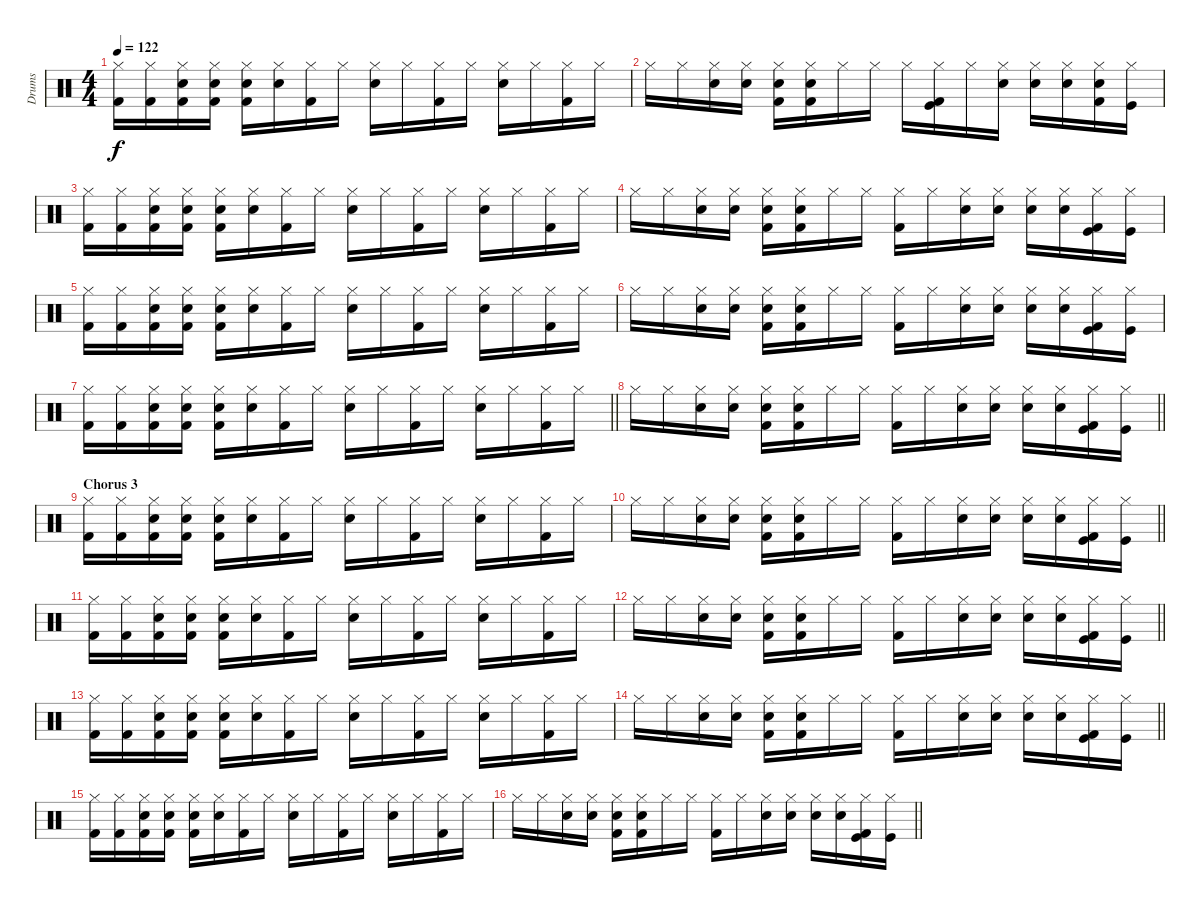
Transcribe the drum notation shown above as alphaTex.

\track ("Drums" "Drums") {instrument percussion}
\staff {score}
\articulation defaults
\ts (4 4)
\tempo 122
\clef neutral
\ks c
("Hi-Hat (closed)" "Kick (hit) 2").16{dy f} ("Hi-Hat (closed)" "Kick (hit) 2").16 ("Hi-Hat (closed)" "Hand Clap (hit)" "Kick (hit) 2").16 ("Hi-Hat (closed)" "Hand Clap (hit)" "Kick (hit) 2").16 ("Hi-Hat (closed)" "Hand Clap (hit)" "Kick (hit) 2").16 ("Hi-Hat (closed)" "Hand Clap (hit)").16 ("Hi-Hat (closed)" "Kick (hit) 2").16 "Hi-Hat (closed)".16 ("Hi-Hat (closed)" "Electric Snare (hit)").16 "Hi-Hat (closed)".16 ("Hi-Hat (closed)" "Kick (hit) 2").16 "Hi-Hat (closed)".16 ("Hi-Hat (closed)" "Electric Snare (hit)").16 "Hi-Hat (closed)".16 ("Hi-Hat (closed)" "Kick (hit) 2").16 "Hi-Hat (closed)".16 |
"Hi-Hat (closed)".16 "Hi-Hat (closed)".16 ("Hi-Hat (closed)" "Hand Clap (hit)").16 ("Hi-Hat (closed)" "Hand Clap (hit)").16 ("Hi-Hat (closed)" "Hand Clap (hit)" "Kick (hit) 2").16 ("Hi-Hat (closed)" "Hand Clap (hit)" "Kick (hit) 2").16 "Hi-Hat (closed)".16 "Hi-Hat (closed)".16 "Hi-Hat (closed)".16 ("Hi-Hat (closed)" "Kick (hit)" "Kick (hit) 2").16 "Hi-Hat (closed)".16 ("Hi-Hat (closed)" "Hand Clap (hit)").16 ("Hi-Hat (closed)" "Hand Clap (hit)").16 ("Hi-Hat (closed)" "Hand Clap (hit)").16 ("Hi-Hat (closed)" "Hand Clap (hit)" "Kick (hit) 2").16 ("Hi-Hat (closed)" "Kick (hit)").16 |
("Hi-Hat (closed)" "Kick (hit) 2").16 ("Hi-Hat (closed)" "Kick (hit) 2").16 ("Hi-Hat (closed)" "Hand Clap (hit)" "Kick (hit) 2").16 ("Hi-Hat (closed)" "Hand Clap (hit)" "Kick (hit) 2").16 ("Hi-Hat (closed)" "Hand Clap (hit)" "Kick (hit) 2").16 ("Hi-Hat (closed)" "Hand Clap (hit)").16 ("Hi-Hat (closed)" "Kick (hit) 2").16 "Hi-Hat (closed)".16 ("Hi-Hat (closed)" "Electric Snare (hit)").16 "Hi-Hat (closed)".16 ("Hi-Hat (closed)" "Kick (hit) 2").16 "Hi-Hat (closed)".16 ("Hi-Hat (closed)" "Electric Snare (hit)").16 "Hi-Hat (closed)".16 ("Hi-Hat (closed)" "Kick (hit) 2").16 "Hi-Hat (closed)".16 |
"Hi-Hat (closed)".16 "Hi-Hat (closed)".16 ("Hi-Hat (closed)" "Hand Clap (hit)").16 ("Hi-Hat (closed)" "Hand Clap (hit)").16 ("Hi-Hat (closed)" "Hand Clap (hit)" "Kick (hit) 2").16 ("Hi-Hat (closed)" "Hand Clap (hit)" "Kick (hit) 2").16 "Hi-Hat (closed)".16 "Hi-Hat (closed)".16 ("Hi-Hat (closed)" "Kick (hit) 2").16 "Hi-Hat (closed)".16 ("Hi-Hat (closed)" "Hand Clap (hit)").16 ("Hi-Hat (closed)" "Hand Clap (hit)").16 ("Hi-Hat (closed)" "Hand Clap (hit)").16 ("Hi-Hat (closed)" "Hand Clap (hit)").16 ("Hi-Hat (closed)" "Kick (hit)" "Kick (hit) 2").16 ("Hi-Hat (closed)" "Kick (hit)").16 |
("Hi-Hat (closed)" "Kick (hit) 2").16 ("Hi-Hat (closed)" "Kick (hit) 2").16 ("Hi-Hat (closed)" "Hand Clap (hit)" "Kick (hit) 2").16 ("Hi-Hat (closed)" "Hand Clap (hit)" "Kick (hit) 2").16 ("Hi-Hat (closed)" "Hand Clap (hit)" "Kick (hit) 2").16 ("Hi-Hat (closed)" "Hand Clap (hit)").16 ("Hi-Hat (closed)" "Kick (hit) 2").16 "Hi-Hat (closed)".16 ("Hi-Hat (closed)" "Electric Snare (hit)").16 "Hi-Hat (closed)".16 ("Hi-Hat (closed)" "Kick (hit) 2").16 "Hi-Hat (closed)".16 ("Hi-Hat (closed)" "Electric Snare (hit)").16 "Hi-Hat (closed)".16 ("Hi-Hat (closed)" "Kick (hit) 2").16 "Hi-Hat (closed)".16 |
"Hi-Hat (closed)".16 "Hi-Hat (closed)".16 ("Hi-Hat (closed)" "Hand Clap (hit)").16 ("Hi-Hat (closed)" "Hand Clap (hit)").16 ("Hi-Hat (closed)" "Hand Clap (hit)" "Kick (hit) 2").16 ("Hi-Hat (closed)" "Hand Clap (hit)" "Kick (hit) 2").16 "Hi-Hat (closed)".16 "Hi-Hat (closed)".16 ("Hi-Hat (closed)" "Kick (hit) 2").16 "Hi-Hat (closed)".16 ("Hi-Hat (closed)" "Hand Clap (hit)").16 ("Hi-Hat (closed)" "Hand Clap (hit)").16 ("Hi-Hat (closed)" "Hand Clap (hit)").16 ("Hi-Hat (closed)" "Hand Clap (hit)").16 ("Hi-Hat (closed)" "Kick (hit)" "Kick (hit) 2").16 ("Hi-Hat (closed)" "Kick (hit)").16 |
\barLineRight lightlight
("Hi-Hat (closed)" "Kick (hit) 2").16 ("Hi-Hat (closed)" "Kick (hit) 2").16 ("Hi-Hat (closed)" "Hand Clap (hit)" "Kick (hit) 2").16 ("Hi-Hat (closed)" "Hand Clap (hit)" "Kick (hit) 2").16 ("Hi-Hat (closed)" "Hand Clap (hit)" "Kick (hit) 2").16 ("Hi-Hat (closed)" "Hand Clap (hit)").16 ("Hi-Hat (closed)" "Kick (hit) 2").16 "Hi-Hat (closed)".16 ("Hi-Hat (closed)" "Electric Snare (hit)").16 "Hi-Hat (closed)".16 ("Hi-Hat (closed)" "Kick (hit) 2").16 "Hi-Hat (closed)".16 ("Hi-Hat (closed)" "Electric Snare (hit)").16 "Hi-Hat (closed)".16 ("Hi-Hat (closed)" "Kick (hit) 2").16 "Hi-Hat (closed)".16 |
\barLineRight lightlight "Hi-Hat (closed)".16 "Hi-Hat (closed)".16
("Hi-Hat (closed)" "Hand Clap (hit)").16 ("Hi-Hat (closed)" "Hand Clap (hit)").16 ("Hi-Hat (closed)" "Hand Clap (hit)" "Kick (hit) 2").16 ("Hi-Hat (closed)" "Hand Clap (hit)" "Kick (hit) 2").16 "Hi-Hat (closed)".16 "Hi-Hat (closed)".16 ("Hi-Hat (closed)" "Kick (hit) 2").16 "Hi-Hat (closed)".16 ("Hi-Hat (closed)" "Hand Clap (hit)").16 ("Hi-Hat (closed)" "Hand Clap (hit)").16 ("Hi-Hat (closed)" "Hand Clap (hit)").16 ("Hi-Hat (closed)" "Hand Clap (hit)").16 ("Hi-Hat (closed)" "Kick (hit)" "Kick (hit) 2").16 ("Hi-Hat (closed)" "Kick (hit)").16 |
\section ("" "Chorus 3")
("Hi-Hat (closed)" "Kick (hit) 2").16 ("Hi-Hat (closed)" "Kick (hit) 2").16 ("Hi-Hat (closed)" "Hand Clap (hit)" "Kick (hit) 2").16 ("Hi-Hat (closed)" "Hand Clap (hit)" "Kick (hit) 2").16 ("Hi-Hat (closed)" "Hand Clap (hit)" "Kick (hit) 2").16 ("Hi-Hat (closed)" "Hand Clap (hit)").16 ("Hi-Hat (closed)" "Kick (hit) 2").16 "Hi-Hat (closed)".16 ("Hi-Hat (closed)" "Electric Snare (hit)").16 "Hi-Hat (closed)".16 ("Hi-Hat (closed)" "Kick (hit) 2").16 "Hi-Hat (closed)".16 ("Hi-Hat (closed)" "Electric Snare (hit)").16 "Hi-Hat (closed)".16 ("Hi-Hat (closed)" "Kick (hit) 2").16 "Hi-Hat (closed)".16 |
\barLineRight lightlight "Hi-Hat (closed)".16 "Hi-Hat (closed)".16
("Hi-Hat (closed)" "Hand Clap (hit)").16 ("Hi-Hat (closed)" "Hand Clap (hit)").16 ("Hi-Hat (closed)" "Hand Clap (hit)" "Kick (hit) 2").16 ("Hi-Hat (closed)" "Hand Clap (hit)" "Kick (hit) 2").16 "Hi-Hat (closed)".16 "Hi-Hat (closed)".16 ("Hi-Hat (closed)" "Kick (hit) 2").16 "Hi-Hat (closed)".16 ("Hi-Hat (closed)" "Hand Clap (hit)").16 ("Hi-Hat (closed)" "Hand Clap (hit)").16 ("Hi-Hat (closed)" "Hand Clap (hit)").16 ("Hi-Hat (closed)" "Hand Clap (hit)").16 ("Hi-Hat (closed)" "Kick (hit)" "Kick (hit) 2").16 ("Hi-Hat (closed)" "Kick (hit)").16 |
("Hi-Hat (closed)" "Kick (hit) 2").16 ("Hi-Hat (closed)" "Kick (hit) 2").16 ("Hi-Hat (closed)" "Hand Clap (hit)" "Kick (hit) 2").16 ("Hi-Hat (closed)" "Hand Clap (hit)" "Kick (hit) 2").16 ("Hi-Hat (closed)" "Hand Clap (hit)" "Kick (hit) 2").16 ("Hi-Hat (closed)" "Hand Clap (hit)").16 ("Hi-Hat (closed)" "Kick (hit) 2").16 "Hi-Hat (closed)".16 ("Hi-Hat (closed)" "Electric Snare (hit)").16 "Hi-Hat (closed)".16 ("Hi-Hat (closed)" "Kick (hit) 2").16 "Hi-Hat (closed)".16 ("Hi-Hat (closed)" "Electric Snare (hit)").16 "Hi-Hat (closed)".16 ("Hi-Hat (closed)" "Kick (hit) 2").16 "Hi-Hat (closed)".16 |
\barLineRight lightlight "Hi-Hat (closed)".16 "Hi-Hat (closed)".16
("Hi-Hat (closed)" "Hand Clap (hit)").16 ("Hi-Hat (closed)" "Hand Clap (hit)").16 ("Hi-Hat (closed)" "Hand Clap (hit)" "Kick (hit) 2").16 ("Hi-Hat (closed)" "Hand Clap (hit)" "Kick (hit) 2").16 "Hi-Hat (closed)".16 "Hi-Hat (closed)".16 ("Hi-Hat (closed)" "Kick (hit) 2").16 "Hi-Hat (closed)".16 ("Hi-Hat (closed)" "Hand Clap (hit)").16 ("Hi-Hat (closed)" "Hand Clap (hit)").16 ("Hi-Hat (closed)" "Hand Clap (hit)").16 ("Hi-Hat (closed)" "Hand Clap (hit)").16 ("Hi-Hat (closed)" "Kick (hit)" "Kick (hit) 2").16 ("Hi-Hat (closed)" "Kick (hit)").16 |
("Hi-Hat (closed)" "Kick (hit) 2").16 ("Hi-Hat (closed)" "Kick (hit) 2").16 ("Hi-Hat (closed)" "Hand Clap (hit)" "Kick (hit) 2").16 ("Hi-Hat (closed)" "Hand Clap (hit)" "Kick (hit) 2").16 ("Hi-Hat (closed)" "Hand Clap (hit)" "Kick (hit) 2").16 ("Hi-Hat (closed)" "Hand Clap (hit)").16 ("Hi-Hat (closed)" "Kick (hit) 2").16 "Hi-Hat (closed)".16 ("Hi-Hat (closed)" "Electric Snare (hit)").16 "Hi-Hat (closed)".16 ("Hi-Hat (closed)" "Kick (hit) 2").16 "Hi-Hat (closed)".16 ("Hi-Hat (closed)" "Electric Snare (hit)").16 "Hi-Hat (closed)".16 ("Hi-Hat (closed)" "Kick (hit) 2").16 "Hi-Hat (closed)".16 |
\barLineRight lightlight "Hi-Hat (closed)".16 "Hi-Hat (closed)".16
("Hi-Hat (closed)" "Hand Clap (hit)").16 ("Hi-Hat (closed)" "Hand Clap (hit)").16 ("Hi-Hat (closed)" "Hand Clap (hit)" "Kick (hit) 2").16 ("Hi-Hat (closed)" "Hand Clap (hit)" "Kick (hit) 2").16 "Hi-Hat (closed)".16 "Hi-Hat (closed)".16 ("Hi-Hat (closed)" "Kick (hit) 2").16 "Hi-Hat (closed)".16 ("Hi-Hat (closed)" "Hand Clap (hit)").16 ("Hi-Hat (closed)" "Hand Clap (hit)").16 ("Hi-Hat (closed)" "Hand Clap (hit)").16 ("Hi-Hat (closed)" "Hand Clap (hit)").16 ("Hi-Hat (closed)" "Kick (hit)" "Kick (hit) 2").16 ("Hi-Hat (closed)" "Kick (hit)").16 |
("Hi-Hat (closed)" "Kick (hit) 2").16 ("Hi-Hat (closed)" "Kick (hit) 2").16 ("Hi-Hat (closed)" "Hand Clap (hit)" "Kick (hit) 2").16 ("Hi-Hat (closed)" "Hand Clap (hit)" "Kick (hit) 2").16 ("Hi-Hat (closed)" "Hand Clap (hit)" "Kick (hit) 2").16 ("Hi-Hat (closed)" "Hand Clap (hit)").16 ("Hi-Hat (closed)" "Kick (hit) 2").16 "Hi-Hat (closed)".16 ("Hi-Hat (closed)" "Electric Snare (hit)").16 "Hi-Hat (closed)".16 ("Hi-Hat (closed)" "Kick (hit) 2").16 "Hi-Hat (closed)".16 ("Hi-Hat (closed)" "Electric Snare (hit)").16 "Hi-Hat (closed)".16 ("Hi-Hat (closed)" "Kick (hit) 2").16 "Hi-Hat (closed)".16 |
\barLineRight lightlight "Hi-Hat (closed)".16 "Hi-Hat (closed)".16
("Hi-Hat (closed)" "Hand Clap (hit)").16 ("Hi-Hat (closed)" "Hand Clap (hit)").16 ("Hi-Hat (closed)" "Hand Clap (hit)" "Kick (hit) 2").16 ("Hi-Hat (closed)" "Hand Clap (hit)" "Kick (hit) 2").16 "Hi-Hat (closed)".16 "Hi-Hat (closed)".16 ("Hi-Hat (closed)" "Kick (hit) 2").16 "Hi-Hat (closed)".16 ("Hi-Hat (closed)" "Hand Clap (hit)").16 ("Hi-Hat (closed)" "Hand Clap (hit)").16 ("Hi-Hat (closed)" "Hand Clap (hit)").16 ("Hi-Hat (closed)" "Hand Clap (hit)").16 ("Hi-Hat (closed)" "Kick (hit)" "Kick (hit) 2").16 ("Hi-Hat (closed)" "Kick (hit)").16
